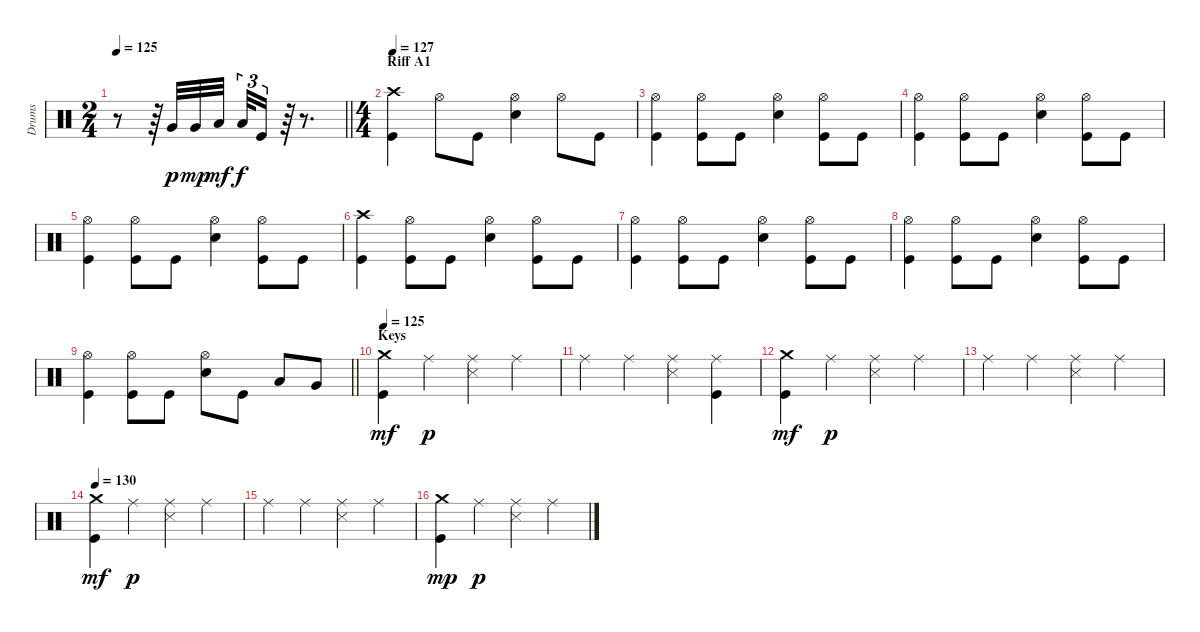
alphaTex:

\track ("Drums" "Drums") {instrument percussion}
\staff {score}
\articulation defaults
\ts (2 4)
\tempo 125
\clef neutral
\barLineRight lightlight
\ks c
r.8{dy p} r.64 "Very Low Tom (hit)".32 "Very Low Tom (hit)".32{dy mp} "Low Tom (hit)".32{dy mf} "Low Tom (hit)".32{tu (3 2) dy f} "Kick (hit)".16{tu (3 2)} r.64 r.8{d} |
\ts (4 4)
\section ("" "Riff A1")
\tempo 127
("Crash high (hit)" "Kick (hit)").4 "Hi-Hat (open)".8 "Kick (hit)".8 ("Hi-Hat (open)" "Snare (hit) 2").4 "Hi-Hat (open)".8 "Kick (hit)".8 |
("Hi-Hat (open)" "Kick (hit)").4 ("Hi-Hat (open)" "Kick (hit)").8 "Kick (hit)".8 ("Hi-Hat (open)" "Snare (hit) 2").4 ("Hi-Hat (open)" "Kick (hit)").8 "Kick (hit)".8 |
("Hi-Hat (open)" "Kick (hit)").4 ("Hi-Hat (open)" "Kick (hit)").8 "Kick (hit)".8 ("Hi-Hat (open)" "Snare (hit) 2").4 ("Hi-Hat (open)" "Kick (hit)").8 "Kick (hit)".8 |
("Hi-Hat (open)" "Kick (hit)").4 ("Hi-Hat (open)" "Kick (hit)").8 "Kick (hit)".8 ("Hi-Hat (open)" "Snare (hit) 2").4 ("Hi-Hat (open)" "Kick (hit)").8 "Kick (hit)".8 |
("Crash high (hit)" "Kick (hit)").4 ("Hi-Hat (open)" "Kick (hit)").8 "Kick (hit)".8 ("Hi-Hat (open)" "Snare (hit) 2").4 ("Hi-Hat (open)" "Kick (hit)").8 "Kick (hit)".8 |
("Hi-Hat (open)" "Kick (hit)").4 ("Hi-Hat (open)" "Kick (hit)").8 "Kick (hit)".8 ("Hi-Hat (open)" "Snare (hit) 2").4 ("Hi-Hat (open)" "Kick (hit)").8 "Kick (hit)".8 |
("Hi-Hat (open)" "Kick (hit)").4 ("Hi-Hat (open)" "Kick (hit)").8 "Kick (hit)".8 ("Hi-Hat (open)" "Snare (hit) 2").4 ("Hi-Hat (open)" "Kick (hit)").8 "Kick (hit)".8 |
\barLineRight lightlight
("Hi-Hat (open)" "Kick (hit)").4 ("Hi-Hat (open)" "Kick (hit)").8 "Kick (hit)".8 ("Hi-Hat (open)" "Snare (hit) 2").8 "Kick (hit)".8 "Low Tom (hit)".8 "Very Low Tom (hit)".8 |
\section ("" "Keys")
\tempo 125
("Crash medium (hit)" "Kick (hit)").4{dy mf} "Ride (middle)".4{dy p} ("Ride (middle)" "Snare (side stick) 3").4 "Ride (middle)".4 |
"Ride (middle)".4 "Ride (middle)".4 ("Ride (middle)" "Snare (side stick) 3").4 ("Ride (middle)" "Kick (hit)").4 |
("Crash medium (hit)" "Kick (hit)").4{dy mf} "Ride (middle)".4{dy p} ("Ride (middle)" "Snare (side stick) 3").4 "Ride (middle)".4 |
"Ride (middle)".4 "Ride (middle)".4 ("Ride (middle)" "Snare (side stick) 3").4 "Ride (middle)".4 |
\tempo 130
("Crash medium (hit)" "Kick (hit)").4{dy mf} "Ride (middle)".4{dy p} ("Ride (middle)" "Snare (side stick) 3").4 "Ride (middle)".4 |
"Ride (middle)".4 "Ride (middle)".4 ("Ride (middle)" "Snare (side stick) 3").4 "Ride (middle)".4 |
("Crash medium (hit)" "Kick (hit)").4{dy mp} "Ride (middle)".4{dy p} ("Ride (middle)" "Snare (side stick) 3").4 "Ride (middle)".4
